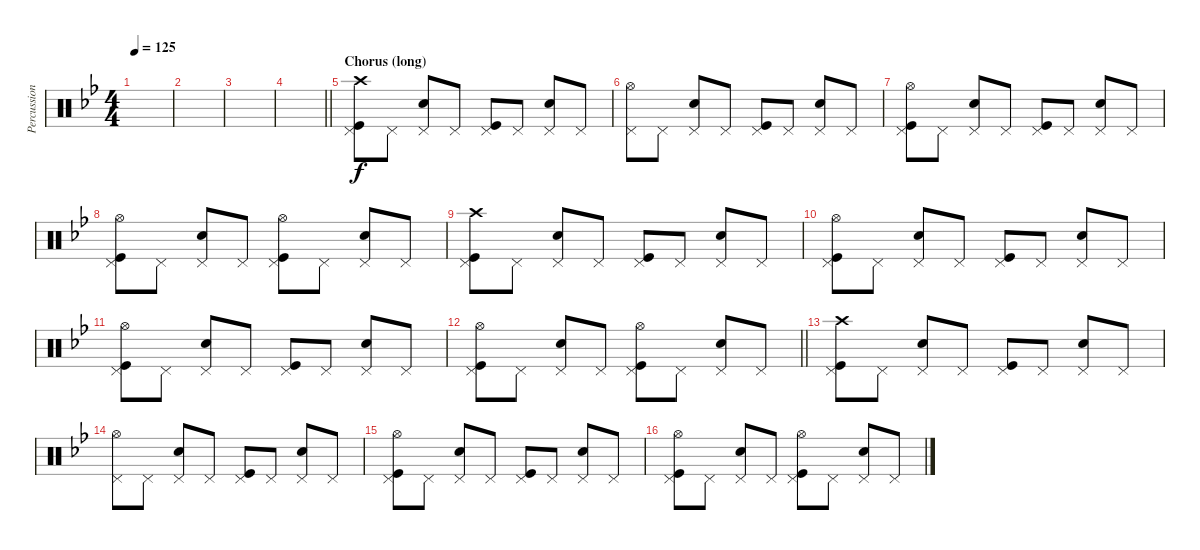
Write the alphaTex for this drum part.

\track ("Percussion" "Percussion") {instrument percussion}
\staff {score}
\articulation defaults
\ts (4 4)
\tempo 125
\clef neutral
\ks bb
|
|
|
\barLineRight lightlight
|
\section ("" "Chorus (long)")
("Crash high (hit)" "Kick (hit)" "Pedal Hi-Hat (hit)").8 "Pedal Hi-Hat (hit)".8 ("Snare (hit) 2" "Pedal Hi-Hat (hit)").8 "Pedal Hi-Hat (hit)".8 ("Kick (hit)" "Pedal Hi-Hat (hit)").8 "Pedal Hi-Hat (hit)".8 ("Snare (hit) 2" "Pedal Hi-Hat (hit)").8 "Pedal Hi-Hat (hit)".8 |
("Hi-Hat (open)" "Pedal Hi-Hat (hit)").8 "Pedal Hi-Hat (hit)".8 ("Snare (hit) 2" "Pedal Hi-Hat (hit)").8 "Pedal Hi-Hat (hit)".8 ("Kick (hit)" "Pedal Hi-Hat (hit)").8 "Pedal Hi-Hat (hit)".8 ("Snare (hit) 2" "Pedal Hi-Hat (hit)").8 "Pedal Hi-Hat (hit)".8 |
("Hi-Hat (open)" "Kick (hit)" "Pedal Hi-Hat (hit)").8 "Pedal Hi-Hat (hit)".8 ("Snare (hit) 2" "Pedal Hi-Hat (hit)").8 "Pedal Hi-Hat (hit)".8 ("Kick (hit)" "Pedal Hi-Hat (hit)").8 "Pedal Hi-Hat (hit)".8 ("Snare (hit) 2" "Pedal Hi-Hat (hit)").8 "Pedal Hi-Hat (hit)".8 |
("Hi-Hat (open)" "Kick (hit)" "Pedal Hi-Hat (hit)").8 "Pedal Hi-Hat (hit)".8 ("Snare (hit) 2" "Pedal Hi-Hat (hit)").8 "Pedal Hi-Hat (hit)".8 ("Hi-Hat (open)" "Kick (hit)" "Pedal Hi-Hat (hit)").8 "Pedal Hi-Hat (hit)".8 ("Snare (hit) 2" "Pedal Hi-Hat (hit)").8 "Pedal Hi-Hat (hit)".8 |
("Crash high (hit)" "Kick (hit)" "Pedal Hi-Hat (hit)").8 "Pedal Hi-Hat (hit)".8 ("Snare (hit) 2" "Pedal Hi-Hat (hit)").8 "Pedal Hi-Hat (hit)".8 ("Kick (hit)" "Pedal Hi-Hat (hit)").8 "Pedal Hi-Hat (hit)".8 ("Snare (hit) 2" "Pedal Hi-Hat (hit)").8 "Pedal Hi-Hat (hit)".8 |
("Hi-Hat (open)" "Kick (hit)" "Pedal Hi-Hat (hit)").8 "Pedal Hi-Hat (hit)".8 ("Snare (hit) 2" "Pedal Hi-Hat (hit)").8 "Pedal Hi-Hat (hit)".8 ("Kick (hit)" "Pedal Hi-Hat (hit)").8 "Pedal Hi-Hat (hit)".8 ("Snare (hit) 2" "Pedal Hi-Hat (hit)").8 "Pedal Hi-Hat (hit)".8 |
("Hi-Hat (open)" "Kick (hit)" "Pedal Hi-Hat (hit)").8 "Pedal Hi-Hat (hit)".8 ("Snare (hit) 2" "Pedal Hi-Hat (hit)").8 "Pedal Hi-Hat (hit)".8 ("Kick (hit)" "Pedal Hi-Hat (hit)").8 "Pedal Hi-Hat (hit)".8 ("Snare (hit) 2" "Pedal Hi-Hat (hit)").8 "Pedal Hi-Hat (hit)".8 |
\barLineRight lightlight
("Hi-Hat (open)" "Kick (hit)" "Pedal Hi-Hat (hit)").8 "Pedal Hi-Hat (hit)".8 ("Snare (hit) 2" "Pedal Hi-Hat (hit)").8 "Pedal Hi-Hat (hit)".8 ("Hi-Hat (open)" "Kick (hit)" "Pedal Hi-Hat (hit)").8 "Pedal Hi-Hat (hit)".8 ("Snare (hit) 2" "Pedal Hi-Hat (hit)").8 "Pedal Hi-Hat (hit)".8 |
("Crash high (hit)" "Kick (hit)" "Pedal Hi-Hat (hit)").8 "Pedal Hi-Hat (hit)".8 ("Snare (hit) 2" "Pedal Hi-Hat (hit)").8 "Pedal Hi-Hat (hit)".8 ("Kick (hit)" "Pedal Hi-Hat (hit)").8 "Pedal Hi-Hat (hit)".8 ("Snare (hit) 2" "Pedal Hi-Hat (hit)").8 "Pedal Hi-Hat (hit)".8 |
("Hi-Hat (open)" "Pedal Hi-Hat (hit)").8 "Pedal Hi-Hat (hit)".8 ("Snare (hit) 2" "Pedal Hi-Hat (hit)").8 "Pedal Hi-Hat (hit)".8 ("Kick (hit)" "Pedal Hi-Hat (hit)").8 "Pedal Hi-Hat (hit)".8 ("Snare (hit) 2" "Pedal Hi-Hat (hit)").8 "Pedal Hi-Hat (hit)".8 |
("Hi-Hat (open)" "Kick (hit)" "Pedal Hi-Hat (hit)").8 "Pedal Hi-Hat (hit)".8 ("Snare (hit) 2" "Pedal Hi-Hat (hit)").8 "Pedal Hi-Hat (hit)".8 ("Kick (hit)" "Pedal Hi-Hat (hit)").8 "Pedal Hi-Hat (hit)".8 ("Snare (hit) 2" "Pedal Hi-Hat (hit)").8 "Pedal Hi-Hat (hit)".8 |
("Hi-Hat (open)" "Kick (hit)" "Pedal Hi-Hat (hit)").8 "Pedal Hi-Hat (hit)".8 ("Snare (hit) 2" "Pedal Hi-Hat (hit)").8 "Pedal Hi-Hat (hit)".8 ("Hi-Hat (open)" "Kick (hit)" "Pedal Hi-Hat (hit)").8 "Pedal Hi-Hat (hit)".8 ("Snare (hit) 2" "Pedal Hi-Hat (hit)").8 "Pedal Hi-Hat (hit)".8
